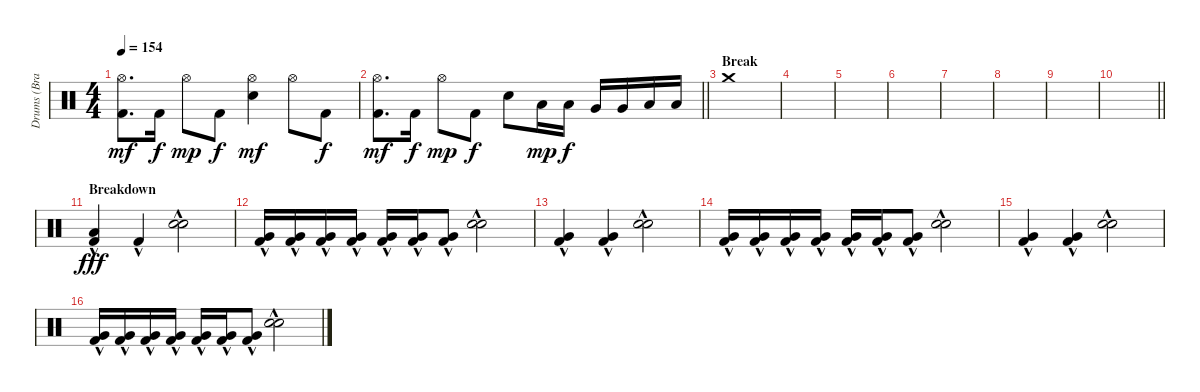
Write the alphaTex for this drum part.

\track ("Drums (Brandon Saller)" "Drums (Bra") {instrument percussion}
\staff {score}
\articulation defaults
\ts (4 4)
\tempo 154
\clef neutral
\ks c
("Hi-Hat (open)" "Kick (hit) 2").8{d dy mf} "Kick (hit) 2".16{dy f} "Hi-Hat (open)".8{dy mp} "Kick (hit) 2".8{dy f} ("Hi-Hat (open)" "Electric Snare (hit)").4{dy mf} "Hi-Hat (open)".8 "Kick (hit) 2".8{dy f} |
\barLineRight lightlight
("Hi-Hat (open)" "Kick (hit) 2").8{d dy mf} "Kick (hit) 2".16{dy f} "Hi-Hat (open)".8{dy mp} "Kick (hit) 2".8{dy f} "Electric Snare (hit)".8 "Low Tom (hit)".16{dy mp} "Low Tom (hit)".16{dy f} "Very Low Tom (hit)".16 "Very Low Tom (hit)".16 "Low Floor Tom (hit)".16 "Low Floor Tom (hit)".16 |
\section ("" "Break")
"Crash medium (hit)".1 |
|
|
|
|
|
|
\barLineRight lightlight
|
\section ("" "Breakdown")
("Low Tom (hit)" "Kick (hit) 2"{hac}).4{dy fff} "Kick (hit) 2"{hac}.4 ("Hand Clap (hit)" "Electric Snare (hit)"{hac}).2 |
("Very Low Tom (hit)" "Kick (hit) 2"{hac}).16 ("Very Low Tom (hit)" "Kick (hit) 2"{hac}).16 ("Very Low Tom (hit)" "Kick (hit) 2"{hac}).16 ("Very Low Tom (hit)" "Kick (hit) 2"{hac}).16 ("Very Low Tom (hit)" "Kick (hit) 2"{hac}).16 ("Very Low Tom (hit)" "Kick (hit) 2"{hac}).16 ("Very Low Tom (hit)" "Kick (hit) 2"{hac}).8 ("Hand Clap (hit)" "Electric Snare (hit)"{hac}).2 |
("Very Low Tom (hit)" "Kick (hit) 2"{hac}).4 ("Very Low Tom (hit)" "Kick (hit) 2"{hac}).4 ("Hand Clap (hit)" "Electric Snare (hit)"{hac}).2 |
("Very Low Tom (hit)" "Kick (hit) 2"{hac}).16 ("Very Low Tom (hit)" "Kick (hit) 2"{hac}).16 ("Very Low Tom (hit)" "Kick (hit) 2"{hac}).16 ("Very Low Tom (hit)" "Kick (hit) 2"{hac}).16 ("Very Low Tom (hit)" "Kick (hit) 2"{hac}).16 ("Very Low Tom (hit)" "Kick (hit) 2"{hac}).16 ("Very Low Tom (hit)" "Kick (hit) 2"{hac}).8 ("Hand Clap (hit)" "Electric Snare (hit)"{hac}).2 |
("Very Low Tom (hit)" "Kick (hit) 2"{hac}).4 ("Very Low Tom (hit)" "Kick (hit) 2"{hac}).4 ("Hand Clap (hit)" "Electric Snare (hit)"{hac}).2 |
("Very Low Tom (hit)" "Kick (hit) 2"{hac}).16 ("Very Low Tom (hit)" "Kick (hit) 2"{hac}).16 ("Very Low Tom (hit)" "Kick (hit) 2"{hac}).16 ("Very Low Tom (hit)" "Kick (hit) 2"{hac}).16 ("Very Low Tom (hit)" "Kick (hit) 2"{hac}).16 ("Very Low Tom (hit)" "Kick (hit) 2"{hac}).16 ("Very Low Tom (hit)" "Kick (hit) 2"{hac}).8 ("Hand Clap (hit)" "Electric Snare (hit)"{hac}).2
